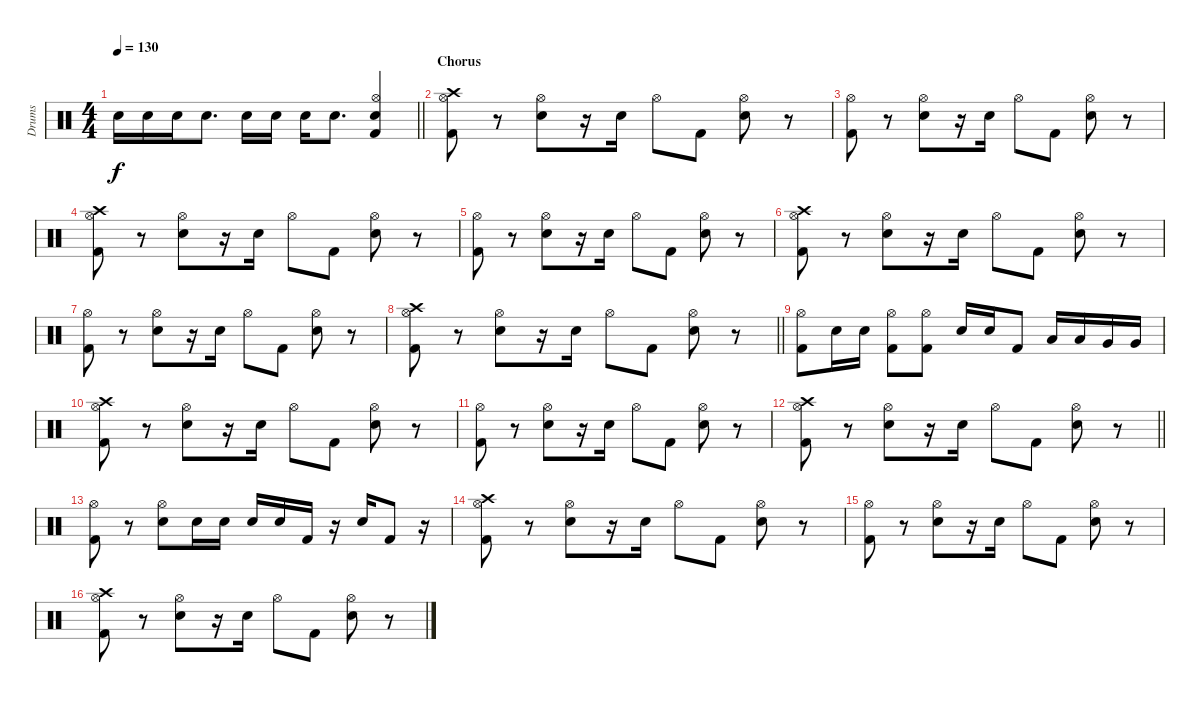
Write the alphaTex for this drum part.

\track ("Drums" "Drums") {instrument percussion}
\staff {score}
\articulation defaults
\ts (4 4)
\tempo 130
\clef neutral
\barLineRight lightlight
\ks c "Snare (hit) 2".16{dy f} "Snare (hit) 2".16 "Snare (hit) 2".16 "Snare (hit) 2".8{d} "Snare (hit) 2".16 "Snare (hit) 2".16 "Snare (hit) 2".16 "Snare (hit) 2".8{d}
("Hi-Hat (open)" "Snare (hit) 2" "Kick (hit) 2").4 |
\section ("" "Chorus")
("Crash high (hit)" "Hi-Hat (open)" "Kick (hit) 2").8 r.8 ("Hi-Hat (open)" "Snare (hit) 2").8 r.16 "Snare (hit) 2".16 "Hi-Hat (open)".8 "Kick (hit) 2".8 ("Hi-Hat (open)" "Snare (hit) 2").8 r.8 |
("Hi-Hat (open)" "Kick (hit) 2").8 r.8 ("Hi-Hat (open)" "Snare (hit) 2").8 r.16 "Snare (hit) 2".16 "Hi-Hat (open)".8 "Kick (hit) 2".8 ("Hi-Hat (open)" "Snare (hit) 2").8 r.8 |
("Crash high (hit)" "Hi-Hat (open)" "Kick (hit) 2").8 r.8 ("Hi-Hat (open)" "Snare (hit) 2").8 r.16 "Snare (hit) 2".16 "Hi-Hat (open)".8 "Kick (hit) 2".8 ("Hi-Hat (open)" "Snare (hit) 2").8 r.8 |
("Hi-Hat (open)" "Kick (hit) 2").8 r.8 ("Hi-Hat (open)" "Snare (hit) 2").8 r.16 "Snare (hit) 2".16 "Hi-Hat (open)".8 "Kick (hit) 2".8 ("Hi-Hat (open)" "Snare (hit) 2").8 r.8 |
("Crash high (hit)" "Hi-Hat (open)" "Kick (hit) 2").8 r.8 ("Hi-Hat (open)" "Snare (hit) 2").8 r.16 "Snare (hit) 2".16 "Hi-Hat (open)".8 "Kick (hit) 2".8 ("Hi-Hat (open)" "Snare (hit) 2").8 r.8 |
("Hi-Hat (open)" "Kick (hit) 2").8 r.8 ("Hi-Hat (open)" "Snare (hit) 2").8 r.16 "Snare (hit) 2".16 "Hi-Hat (open)".8 "Kick (hit) 2".8 ("Hi-Hat (open)" "Snare (hit) 2").8 r.8 |
\barLineRight lightlight
("Crash high (hit)" "Hi-Hat (open)" "Kick (hit) 2").8 r.8 ("Hi-Hat (open)" "Snare (hit) 2").8 r.16 "Snare (hit) 2".16 "Hi-Hat (open)".8 "Kick (hit) 2".8 ("Hi-Hat (open)" "Snare (hit) 2").8 r.8 |
\section ("" "")
("Hi-Hat (open)" "Kick (hit) 2").8 "Snare (hit) 2".16 "Snare (hit) 2".16 ("Hi-Hat (open)" "Kick (hit) 2").8 ("Hi-Hat (open)" "Kick (hit) 2").8 "Snare (hit) 2".16 "Snare (hit) 2".16 "Kick (hit) 2".8 "Low Tom (hit)".16 "Low Tom (hit)".16 "Very Low Tom (hit)".16 "Very Low Tom (hit)".16 |
("Crash high (hit)" "Hi-Hat (open)" "Kick (hit) 2").8 r.8 ("Hi-Hat (open)" "Snare (hit) 2").8 r.16 "Snare (hit) 2".16 "Hi-Hat (open)".8 "Kick (hit) 2".8 ("Hi-Hat (open)" "Snare (hit) 2").8 r.8 |
("Hi-Hat (open)" "Kick (hit) 2").8 r.8 ("Hi-Hat (open)" "Snare (hit) 2").8 r.16 "Snare (hit) 2".16 "Hi-Hat (open)".8 "Kick (hit) 2".8 ("Hi-Hat (open)" "Snare (hit) 2").8 r.8 |
\barLineRight lightlight
("Crash high (hit)" "Hi-Hat (open)" "Kick (hit) 2").8 r.8 ("Hi-Hat (open)" "Snare (hit) 2").8 r.16 "Snare (hit) 2".16 "Hi-Hat (open)".8 "Kick (hit) 2".8 ("Hi-Hat (open)" "Snare (hit) 2").8 r.8 |
\section ("" "")
("Hi-Hat (open)" "Kick (hit) 2").8 r.8 ("Hi-Hat (open)" "Snare (hit) 2").8 "Snare (hit) 2".16 "Snare (hit) 2".16 "Snare (hit) 2".16 "Snare (hit) 2".16 "Kick (hit) 2".16 r.16 "Snare (hit) 2".16 "Kick (hit) 2".8 r.16 |
("Crash high (hit)" "Hi-Hat (open)" "Kick (hit) 2").8 r.8 ("Hi-Hat (open)" "Snare (hit) 2").8 r.16 "Snare (hit) 2".16 "Hi-Hat (open)".8 "Kick (hit) 2".8 ("Hi-Hat (open)" "Snare (hit) 2").8 r.8 |
("Hi-Hat (open)" "Kick (hit) 2").8 r.8 ("Hi-Hat (open)" "Snare (hit) 2").8 r.16 "Snare (hit) 2".16 "Hi-Hat (open)".8 "Kick (hit) 2".8 ("Hi-Hat (open)" "Snare (hit) 2").8 r.8 |
("Crash high (hit)" "Hi-Hat (open)" "Kick (hit) 2").8 r.8 ("Hi-Hat (open)" "Snare (hit) 2").8 r.16 "Snare (hit) 2".16 "Hi-Hat (open)".8 "Kick (hit) 2".8 ("Hi-Hat (open)" "Snare (hit) 2").8 r.8
